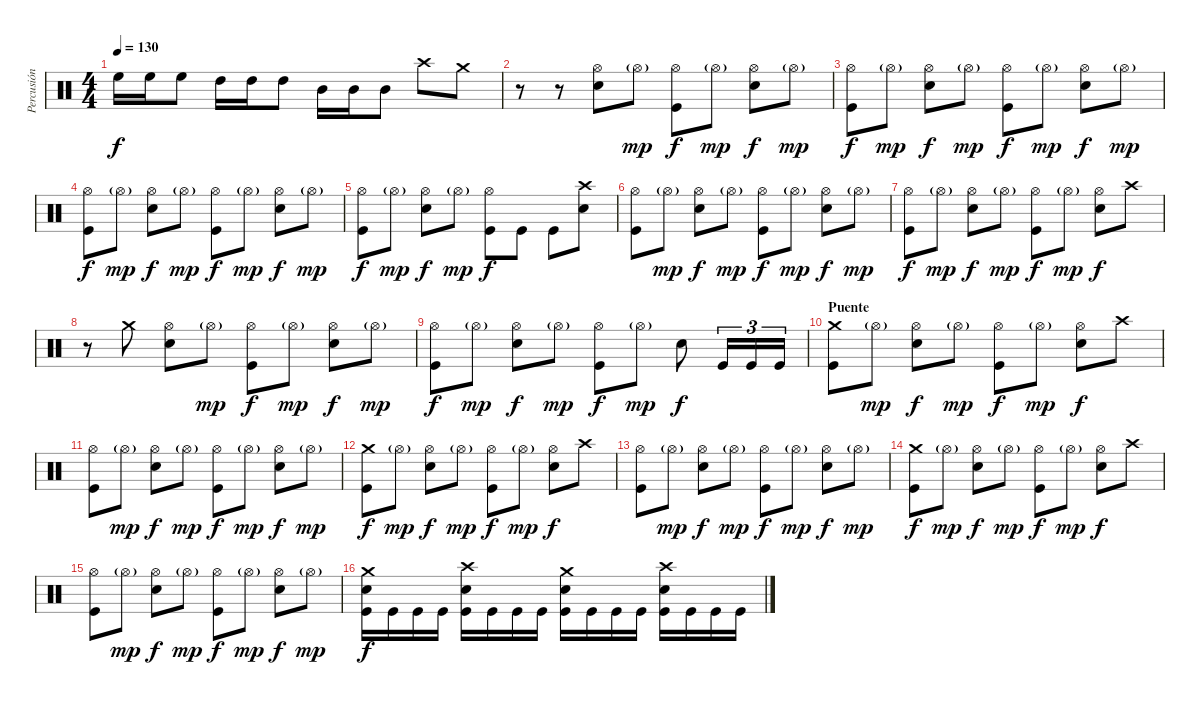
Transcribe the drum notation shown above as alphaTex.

\track ("Percusión" "Percusión") {instrument percussion}
\staff {score}
\articulation defaults
\ts (4 4)
\tempo 130
\clef neutral
\ks c "High Floor Tom (hit)".16{dy f} "High Floor Tom (hit)".16 "High Floor Tom (hit)".8 "High Tom (hit)".16 "High Tom (hit)".16 "High Tom (hit)".8 "Mid Tom (hit)".16 "Mid Tom (hit)".16 "Mid Tom (hit)".8 "Crash high (hit)".8 "Crash medium (hit)".8
|
r.8 r.8 ("Hi-Hat (open)" "Electric Snare (hit)").8 "Hi-Hat (open)"{g}.8{dy mp} ("Hi-Hat (open)" "Kick (hit)").8{dy f} "Hi-Hat (open)"{g}.8{dy mp} ("Hi-Hat (open)" "Electric Snare (hit)").8{dy f} "Hi-Hat (open)"{g}.8{dy mp} |
("Hi-Hat (open)" "Kick (hit)").8{dy f} "Hi-Hat (open)"{g}.8{dy mp} ("Hi-Hat (open)" "Electric Snare (hit)").8{dy f} "Hi-Hat (open)"{g}.8{dy mp} ("Hi-Hat (open)" "Kick (hit)").8{dy f} "Hi-Hat (open)"{g}.8{dy mp} ("Hi-Hat (open)" "Electric Snare (hit)").8{dy f} "Hi-Hat (open)"{g}.8{dy mp} |
("Hi-Hat (open)" "Kick (hit)").8{dy f} "Hi-Hat (open)"{g}.8{dy mp} ("Hi-Hat (open)" "Electric Snare (hit)").8{dy f} "Hi-Hat (open)"{g}.8{dy mp} ("Hi-Hat (open)" "Kick (hit)").8{dy f} "Hi-Hat (open)"{g}.8{dy mp} ("Hi-Hat (open)" "Electric Snare (hit)").8{dy f} "Hi-Hat (open)"{g}.8{dy mp} |
("Hi-Hat (open)" "Kick (hit)").8{dy f} "Hi-Hat (open)"{g}.8{dy mp} ("Hi-Hat (open)" "Electric Snare (hit)").8{dy f} "Hi-Hat (open)"{g}.8{dy mp} ("Hi-Hat (open)" "Kick (hit)").8{dy f} "Kick (hit)".8 "Kick (hit)".8 ("Crash high (hit)" "Electric Snare (hit)").8 |
("Hi-Hat (open)" "Kick (hit)").8 "Hi-Hat (open)"{g}.8{dy mp} ("Hi-Hat (open)" "Electric Snare (hit)").8{dy f} "Hi-Hat (open)"{g}.8{dy mp} ("Hi-Hat (open)" "Kick (hit)").8{dy f} "Hi-Hat (open)"{g}.8{dy mp} ("Hi-Hat (open)" "Electric Snare (hit)").8{dy f} "Hi-Hat (open)"{g}.8{dy mp} |
("Hi-Hat (open)" "Kick (hit)").8{dy f} "Hi-Hat (open)"{g}.8{dy mp} ("Hi-Hat (open)" "Electric Snare (hit)").8{dy f} "Hi-Hat (open)"{g}.8{dy mp} ("Hi-Hat (open)" "Kick (hit)").8{dy f} "Hi-Hat (open)"{g}.8{dy mp} ("Hi-Hat (open)" "Electric Snare (hit)").8{dy f} "Crash high (hit)".8 |
r.8 "Crash medium (hit)".8 ("Hi-Hat (open)" "Electric Snare (hit)").8 "Hi-Hat (open)"{g}.8{dy mp} ("Hi-Hat (open)" "Kick (hit)").8{dy f} "Hi-Hat (open)"{g}.8{dy mp} ("Hi-Hat (open)" "Electric Snare (hit)").8{dy f} "Hi-Hat (open)"{g}.8{dy mp} |
("Hi-Hat (open)" "Kick (hit)").8{dy f} "Hi-Hat (open)"{g}.8{dy mp} ("Hi-Hat (open)" "Electric Snare (hit)").8{dy f} "Hi-Hat (open)"{g}.8{dy mp} ("Hi-Hat (open)" "Kick (hit)").8{dy f} "Hi-Hat (open)"{g}.8{dy mp} "Electric Snare (hit)".8{dy f} "Kick (hit)".16{tu (3 2)} "Kick (hit)".16{tu (3 2)} "Kick (hit)".16{tu (3 2)} |
\section ("" "Puente")
("Crash medium (hit)" "Kick (hit)").8 "Hi-Hat (open)"{g}.8{dy mp} ("Hi-Hat (open)" "Electric Snare (hit)").8{dy f} "Hi-Hat (open)"{g}.8{dy mp} ("Hi-Hat (open)" "Kick (hit)").8{dy f} "Hi-Hat (open)"{g}.8{dy mp} ("Hi-Hat (open)" "Electric Snare (hit)").8{dy f} "Crash high (hit)".8 |
("Hi-Hat (open)" "Kick (hit)").8 "Hi-Hat (open)"{g}.8{dy mp} ("Hi-Hat (open)" "Electric Snare (hit)").8{dy f} "Hi-Hat (open)"{g}.8{dy mp} ("Hi-Hat (open)" "Kick (hit)").8{dy f} "Hi-Hat (open)"{g}.8{dy mp} ("Hi-Hat (open)" "Electric Snare (hit)").8{dy f} "Hi-Hat (open)"{g}.8{dy mp} |
("Crash medium (hit)" "Kick (hit)").8{dy f} "Hi-Hat (open)"{g}.8{dy mp} ("Hi-Hat (open)" "Electric Snare (hit)").8{dy f} "Hi-Hat (open)"{g}.8{dy mp} ("Hi-Hat (open)" "Kick (hit)").8{dy f} "Hi-Hat (open)"{g}.8{dy mp} ("Hi-Hat (open)" "Electric Snare (hit)").8{dy f} "Crash high (hit)".8 |
("Hi-Hat (open)" "Kick (hit)").8 "Hi-Hat (open)"{g}.8{dy mp} ("Hi-Hat (open)" "Electric Snare (hit)").8{dy f} "Hi-Hat (open)"{g}.8{dy mp} ("Hi-Hat (open)" "Kick (hit)").8{dy f} "Hi-Hat (open)"{g}.8{dy mp} ("Hi-Hat (open)" "Electric Snare (hit)").8{dy f} "Hi-Hat (open)"{g}.8{dy mp} |
("Crash medium (hit)" "Kick (hit)").8{dy f} "Hi-Hat (open)"{g}.8{dy mp} ("Hi-Hat (open)" "Electric Snare (hit)").8{dy f} "Hi-Hat (open)"{g}.8{dy mp} ("Hi-Hat (open)" "Kick (hit)").8{dy f} "Hi-Hat (open)"{g}.8{dy mp} ("Hi-Hat (open)" "Electric Snare (hit)").8{dy f} "Crash high (hit)".8 |
("Hi-Hat (open)" "Kick (hit)").8 "Hi-Hat (open)"{g}.8{dy mp} ("Hi-Hat (open)" "Electric Snare (hit)").8{dy f} "Hi-Hat (open)"{g}.8{dy mp} ("Hi-Hat (open)" "Kick (hit)").8{dy f} "Hi-Hat (open)"{g}.8{dy mp} ("Hi-Hat (open)" "Electric Snare (hit)").8{dy f} "Hi-Hat (open)"{g}.8{dy mp} |
("Crash medium (hit)" "Electric Snare (hit)" "Kick (hit)").16{dy f} "Kick (hit)".16 "Kick (hit)".16 "Kick (hit)".16 ("Crash high (hit)" "Electric Snare (hit)" "Kick (hit)").16 "Kick (hit)".16 "Kick (hit)".16 "Kick (hit)".16 ("Crash medium (hit)" "Electric Snare (hit)" "Kick (hit)").16 "Kick (hit)".16 "Kick (hit)".16 "Kick (hit)".16 ("Crash high (hit)" "Electric Snare (hit)" "Kick (hit)").16 "Kick (hit)".16 "Kick (hit)".16 "Kick (hit)".16
